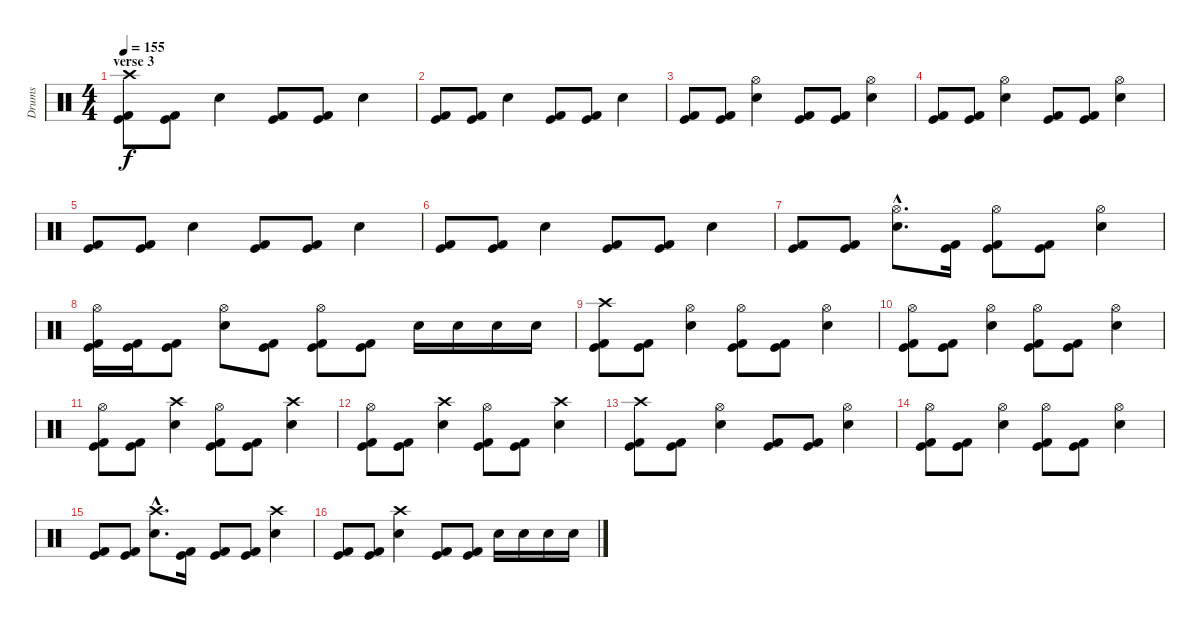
\track ("Drums" "Drums") {instrument percussion}
\staff {score}
\articulation defaults
\ts (4 4)
\section ("" "verse 3")
\tempo 155
\clef neutral
\ks c
("Crash high (hit)" "Kick (hit)" "Kick (hit) 2").8{dy f} ("Kick (hit)" "Kick (hit) 2").8 "Electric Snare (hit)".4 ("Kick (hit)" "Kick (hit) 2").8 ("Kick (hit)" "Kick (hit) 2").8 "Electric Snare (hit)".4 |
("Kick (hit)" "Kick (hit) 2").8 ("Kick (hit)" "Kick (hit) 2").8 "Electric Snare (hit)".4 ("Kick (hit)" "Kick (hit) 2").8 ("Kick (hit)" "Kick (hit) 2").8 "Electric Snare (hit)".4 |
("Kick (hit)" "Kick (hit) 2").8 ("Kick (hit)" "Kick (hit) 2").8 ("Hi-Hat (open)" "Electric Snare (hit)").4 ("Kick (hit)" "Kick (hit) 2").8 ("Kick (hit)" "Kick (hit) 2").8 ("Hi-Hat (open)" "Electric Snare (hit)").4 |
("Kick (hit)" "Kick (hit) 2").8 ("Kick (hit)" "Kick (hit) 2").8 ("Hi-Hat (open)" "Electric Snare (hit)").4 ("Kick (hit)" "Kick (hit) 2").8 ("Kick (hit)" "Kick (hit) 2").8 ("Hi-Hat (open)" "Electric Snare (hit)").4 |
("Kick (hit)" "Kick (hit) 2").8 ("Kick (hit)" "Kick (hit) 2").8 "Electric Snare (hit)".4 ("Kick (hit)" "Kick (hit) 2").8 ("Kick (hit)" "Kick (hit) 2").8 "Electric Snare (hit)".4 |
("Kick (hit)" "Kick (hit) 2").8 ("Kick (hit)" "Kick (hit) 2").8 "Electric Snare (hit)".4 ("Kick (hit)" "Kick (hit) 2").8 ("Kick (hit)" "Kick (hit) 2").8 "Electric Snare (hit)".4 |
("Kick (hit)" "Kick (hit) 2").8 ("Kick (hit)" "Kick (hit) 2").8 ("Hi-Hat (open)"{hac} "Electric Snare (hit)"{hac}).8{d} ("Kick (hit)" "Kick (hit) 2").16 ("Hi-Hat (open)" "Kick (hit)" "Kick (hit) 2").8 ("Kick (hit)" "Kick (hit) 2").8 ("Hi-Hat (open)" "Electric Snare (hit)").4 |
("Hi-Hat (open)" "Kick (hit)" "Kick (hit) 2").16 ("Kick (hit)" "Kick (hit) 2").16 ("Kick (hit)" "Kick (hit) 2").8 ("Hi-Hat (open)" "Electric Snare (hit)").8 ("Kick (hit)" "Kick (hit) 2").8 ("Hi-Hat (open)" "Kick (hit)" "Kick (hit) 2").8 ("Kick (hit)" "Kick (hit) 2").8 "Electric Snare (hit)".16 "Electric Snare (hit)".16 "Electric Snare (hit)".16 "Electric Snare (hit)".16 |
("Crash high (hit)" "Kick (hit)" "Kick (hit) 2").8 ("Kick (hit)" "Kick (hit) 2").8 ("Hi-Hat (open)" "Electric Snare (hit)").4 ("Hi-Hat (open)" "Kick (hit)" "Kick (hit) 2").8 ("Kick (hit)" "Kick (hit) 2").8 ("Hi-Hat (open)" "Electric Snare (hit)").4 |
("Hi-Hat (open)" "Kick (hit)" "Kick (hit) 2").8 ("Kick (hit)" "Kick (hit) 2").8 ("Hi-Hat (open)" "Electric Snare (hit)").4 ("Hi-Hat (open)" "Kick (hit)" "Kick (hit) 2").8 ("Kick (hit)" "Kick (hit) 2").8 ("Hi-Hat (open)" "Electric Snare (hit)").4 |
("Hi-Hat (open)" "Kick (hit)" "Kick (hit) 2").8 ("Kick (hit)" "Kick (hit) 2").8 ("Crash high (hit)" "Electric Snare (hit)").4 ("Hi-Hat (open)" "Kick (hit)" "Kick (hit) 2").8 ("Kick (hit)" "Kick (hit) 2").8 ("Crash high (hit)" "Electric Snare (hit)").4 |
("Hi-Hat (open)" "Kick (hit)" "Kick (hit) 2").8 ("Kick (hit)" "Kick (hit) 2").8 ("Crash high (hit)" "Electric Snare (hit)").4 ("Hi-Hat (open)" "Kick (hit)" "Kick (hit) 2").8 ("Kick (hit)" "Kick (hit) 2").8 ("Crash high (hit)" "Electric Snare (hit)").4 |
("Crash high (hit)" "Kick (hit)" "Kick (hit) 2").8 ("Kick (hit)" "Kick (hit) 2").8 ("Hi-Hat (open)" "Electric Snare (hit)").4 ("Kick (hit)" "Kick (hit) 2").8 ("Kick (hit)" "Kick (hit) 2").8 ("Hi-Hat (open)" "Electric Snare (hit)").4 |
("Hi-Hat (open)" "Kick (hit)" "Kick (hit) 2").8 ("Kick (hit)" "Kick (hit) 2").8 ("Hi-Hat (open)" "Electric Snare (hit)").4 ("Hi-Hat (open)" "Kick (hit)" "Kick (hit) 2").8 ("Kick (hit)" "Kick (hit) 2").8 ("Hi-Hat (open)" "Electric Snare (hit)").4 |
("Kick (hit)" "Kick (hit) 2").8 ("Kick (hit)" "Kick (hit) 2").8 ("Crash high (hit)"{hac} "Electric Snare (hit)"{hac}).8{d} ("Kick (hit)" "Kick (hit) 2").16 ("Kick (hit)" "Kick (hit) 2").8 ("Kick (hit)" "Kick (hit) 2").8 ("Crash high (hit)" "Electric Snare (hit)").4 |
("Kick (hit)" "Kick (hit) 2").8 ("Kick (hit)" "Kick (hit) 2").8 ("Crash high (hit)" "Electric Snare (hit)").4 ("Kick (hit)" "Kick (hit) 2").8 ("Kick (hit)" "Kick (hit) 2").8 "Electric Snare (hit)".16 "Electric Snare (hit)".16 "Electric Snare (hit)".16 "Electric Snare (hit)".16
